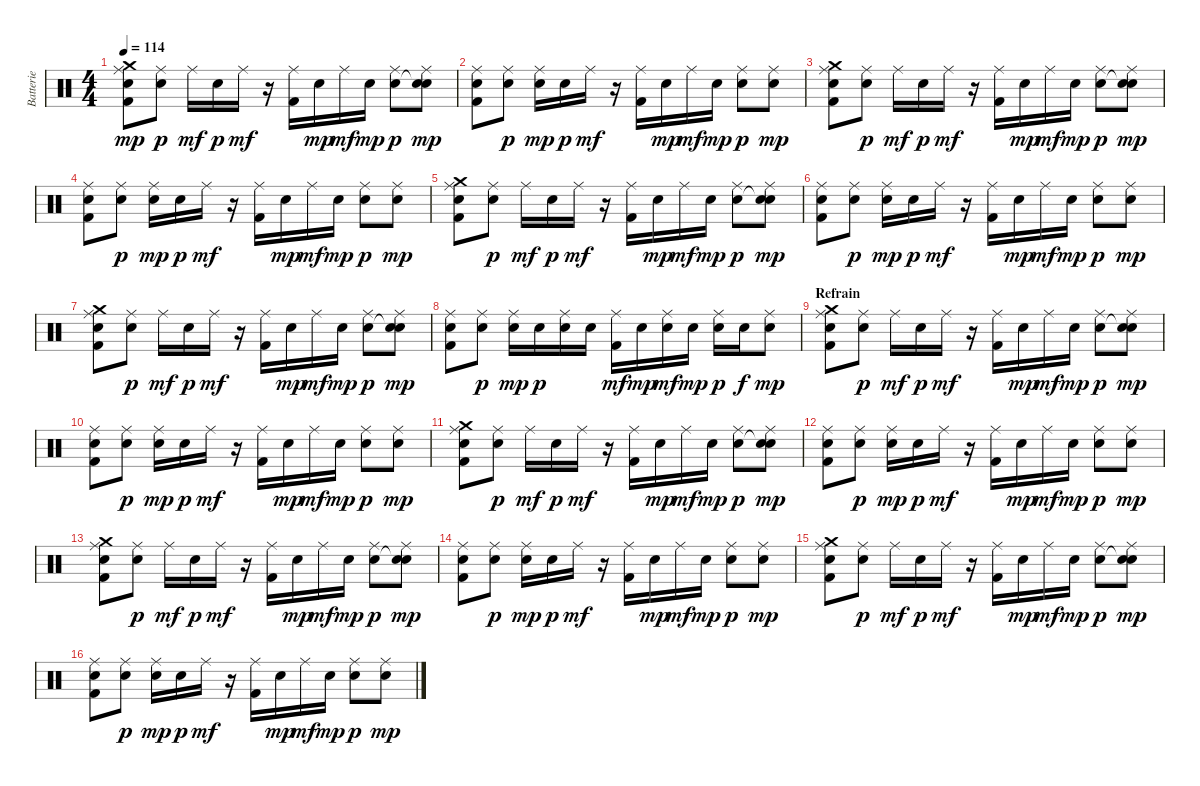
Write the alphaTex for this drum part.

\track ("Batterie" "Batterie") {instrument percussion}
\staff {score}
\articulation defaults
\ts (4 4)
\tempo 114
\clef neutral
\ks c
("Ride (middle)" "Crash medium (hit)" "Kick (hit) 2" "Snare (hit) 2").8{dy mp} ("Ride (middle)" "Snare (hit) 2").8{dy p} "Ride (middle)".16{dy mf} "Snare (hit) 2".16{dy p} "Ride (middle)".16{dy mf} r.16 ("Ride (middle)" "Kick (hit) 2").16 "Snare (hit) 2".16{dy mp} "Ride (middle)".16{dy mf} "Snare (hit) 2".16{dy mp} ("Ride (middle)" "Snare (hit) 2").8{dy p} ("Ride (middle)" "Snare (hit)"{t} "Snare (hit) 2").8{dy mp} |
("Ride (middle)" "Kick (hit) 2" "Snare (hit) 2").8 ("Ride (middle)" "Snare (hit) 2").8{dy p} ("Ride (middle)" "Snare (hit) 2").16{dy mp} "Snare (hit) 2".16{dy p} "Ride (middle)".16{dy mf} r.16 ("Ride (middle)" "Kick (hit) 2").16 "Snare (hit) 2".16{dy mp} "Ride (middle)".16{dy mf} "Snare (hit) 2".16{dy mp} ("Ride (middle)" "Snare (hit) 2").8{dy p} ("Ride (middle)" "Snare (hit) 2").8{dy mp} |
("Ride (middle)" "Crash medium (hit)" "Kick (hit) 2" "Snare (hit) 2").8 ("Ride (middle)" "Snare (hit) 2").8{dy p} "Ride (middle)".16{dy mf} "Snare (hit) 2".16{dy p} "Ride (middle)".16{dy mf} r.16 ("Ride (middle)" "Kick (hit) 2").16 "Snare (hit) 2".16{dy mp} "Ride (middle)".16{dy mf} "Snare (hit) 2".16{dy mp} ("Ride (middle)" "Snare (hit) 2").8{dy p} ("Ride (middle)" "Snare (hit)"{t} "Snare (hit) 2").8{dy mp} |
("Ride (middle)" "Kick (hit) 2" "Snare (hit) 2").8 ("Ride (middle)" "Snare (hit) 2").8{dy p} ("Ride (middle)" "Snare (hit) 2").16{dy mp} "Snare (hit) 2".16{dy p} "Ride (middle)".16{dy mf} r.16 ("Ride (middle)" "Kick (hit) 2").16 "Snare (hit) 2".16{dy mp} "Ride (middle)".16{dy mf} "Snare (hit) 2".16{dy mp} ("Ride (middle)" "Snare (hit) 2").8{dy p} ("Ride (middle)" "Snare (hit) 2").8{dy mp} |
("Ride (middle)" "Crash medium (hit)" "Kick (hit) 2" "Snare (hit) 2").8 ("Ride (middle)" "Snare (hit) 2").8{dy p} "Ride (middle)".16{dy mf} "Snare (hit) 2".16{dy p} "Ride (middle)".16{dy mf} r.16 ("Ride (middle)" "Kick (hit) 2").16 "Snare (hit) 2".16{dy mp} "Ride (middle)".16{dy mf} "Snare (hit) 2".16{dy mp} ("Ride (middle)" "Snare (hit) 2").8{dy p} ("Ride (middle)" "Snare (hit)"{t} "Snare (hit) 2").8{dy mp} |
("Ride (middle)" "Kick (hit) 2" "Snare (hit) 2").8 ("Ride (middle)" "Snare (hit) 2").8{dy p} ("Ride (middle)" "Snare (hit) 2").16{dy mp} "Snare (hit) 2".16{dy p} "Ride (middle)".16{dy mf} r.16 ("Ride (middle)" "Kick (hit) 2").16 "Snare (hit) 2".16{dy mp} "Ride (middle)".16{dy mf} "Snare (hit) 2".16{dy mp} ("Ride (middle)" "Snare (hit) 2").8{dy p} ("Ride (middle)" "Snare (hit) 2").8{dy mp} |
("Ride (middle)" "Crash medium (hit)" "Kick (hit) 2" "Snare (hit) 2").8 ("Ride (middle)" "Snare (hit) 2").8{dy p} "Ride (middle)".16{dy mf} "Snare (hit) 2".16{dy p} "Ride (middle)".16{dy mf} r.16 ("Ride (middle)" "Kick (hit) 2").16 "Snare (hit) 2".16{dy mp} "Ride (middle)".16{dy mf} "Snare (hit) 2".16{dy mp} ("Ride (middle)" "Snare (hit) 2").8{dy p} ("Ride (middle)" "Snare (hit)"{t} "Snare (hit) 2").8{dy mp} |
("Ride (middle)" "Kick (hit) 2" "Snare (hit) 2").8 ("Ride (middle)" "Snare (hit) 2").8{dy p} ("Ride (middle)" "Snare (hit) 2").16{dy mp} "Snare (hit) 2".16{dy p} ("Ride (middle)" "Snare (hit) 2").16 "Snare (hit) 2".16 ("Ride (middle)" "Kick (hit) 2").16{dy mf} "Snare (hit) 2".16{dy mp} ("Ride (middle)" "Snare (hit) 2").16{dy mf} "Snare (hit) 2".16{dy mp} ("Ride (middle)" "Snare (hit) 2").16{dy p} "Snare (hit) 2".16{dy f} ("Ride (middle)" "Snare (hit) 2").8{dy mp} |
\section ("" "Refrain")
("Ride (middle)" "Crash medium (hit)" "Kick (hit) 2" "Snare (hit) 2").8 ("Ride (middle)" "Snare (hit) 2").8{dy p} "Ride (middle)".16{dy mf} "Snare (hit) 2".16{dy p} "Ride (middle)".16{dy mf} r.16 ("Ride (middle)" "Kick (hit) 2").16 "Snare (hit) 2".16{dy mp} "Ride (middle)".16{dy mf} "Snare (hit) 2".16{dy mp} ("Ride (middle)" "Snare (hit) 2").8{dy p} ("Ride (middle)" "Snare (hit)"{t} "Snare (hit) 2").8{dy mp} |
("Ride (middle)" "Kick (hit) 2" "Snare (hit) 2").8 ("Ride (middle)" "Snare (hit) 2").8{dy p} ("Ride (middle)" "Snare (hit) 2").16{dy mp} "Snare (hit) 2".16{dy p} "Ride (middle)".16{dy mf} r.16 ("Ride (middle)" "Kick (hit) 2").16 "Snare (hit) 2".16{dy mp} "Ride (middle)".16{dy mf} "Snare (hit) 2".16{dy mp} ("Ride (middle)" "Snare (hit) 2").8{dy p} ("Ride (middle)" "Snare (hit) 2").8{dy mp} |
("Ride (middle)" "Crash medium (hit)" "Kick (hit) 2" "Snare (hit) 2").8 ("Ride (middle)" "Snare (hit) 2").8{dy p} "Ride (middle)".16{dy mf} "Snare (hit) 2".16{dy p} "Ride (middle)".16{dy mf} r.16 ("Ride (middle)" "Kick (hit) 2").16 "Snare (hit) 2".16{dy mp} "Ride (middle)".16{dy mf} "Snare (hit) 2".16{dy mp} ("Ride (middle)" "Snare (hit) 2").8{dy p} ("Ride (middle)" "Snare (hit)"{t} "Snare (hit) 2").8{dy mp} |
("Ride (middle)" "Kick (hit) 2" "Snare (hit) 2").8 ("Ride (middle)" "Snare (hit) 2").8{dy p} ("Ride (middle)" "Snare (hit) 2").16{dy mp} "Snare (hit) 2".16{dy p} "Ride (middle)".16{dy mf} r.16 ("Ride (middle)" "Kick (hit) 2").16 "Snare (hit) 2".16{dy mp} "Ride (middle)".16{dy mf} "Snare (hit) 2".16{dy mp} ("Ride (middle)" "Snare (hit) 2").8{dy p} ("Ride (middle)" "Snare (hit) 2").8{dy mp} |
("Ride (middle)" "Crash medium (hit)" "Kick (hit) 2" "Snare (hit) 2").8 ("Ride (middle)" "Snare (hit) 2").8{dy p} "Ride (middle)".16{dy mf} "Snare (hit) 2".16{dy p} "Ride (middle)".16{dy mf} r.16 ("Ride (middle)" "Kick (hit) 2").16 "Snare (hit) 2".16{dy mp} "Ride (middle)".16{dy mf} "Snare (hit) 2".16{dy mp} ("Ride (middle)" "Snare (hit) 2").8{dy p} ("Ride (middle)" "Snare (hit)"{t} "Snare (hit) 2").8{dy mp} |
("Ride (middle)" "Kick (hit) 2" "Snare (hit) 2").8 ("Ride (middle)" "Snare (hit) 2").8{dy p} ("Ride (middle)" "Snare (hit) 2").16{dy mp} "Snare (hit) 2".16{dy p} "Ride (middle)".16{dy mf} r.16 ("Ride (middle)" "Kick (hit) 2").16 "Snare (hit) 2".16{dy mp} "Ride (middle)".16{dy mf} "Snare (hit) 2".16{dy mp} ("Ride (middle)" "Snare (hit) 2").8{dy p} ("Ride (middle)" "Snare (hit) 2").8{dy mp} |
("Ride (middle)" "Crash medium (hit)" "Kick (hit) 2" "Snare (hit) 2").8 ("Ride (middle)" "Snare (hit) 2").8{dy p} "Ride (middle)".16{dy mf} "Snare (hit) 2".16{dy p} "Ride (middle)".16{dy mf} r.16 ("Ride (middle)" "Kick (hit) 2").16 "Snare (hit) 2".16{dy mp} "Ride (middle)".16{dy mf} "Snare (hit) 2".16{dy mp} ("Ride (middle)" "Snare (hit) 2").8{dy p} ("Ride (middle)" "Snare (hit)"{t} "Snare (hit) 2").8{dy mp} |
("Ride (middle)" "Kick (hit) 2" "Snare (hit) 2").8 ("Ride (middle)" "Snare (hit) 2").8{dy p} ("Ride (middle)" "Snare (hit) 2").16{dy mp} "Snare (hit) 2".16{dy p} "Ride (middle)".16{dy mf} r.16 ("Ride (middle)" "Kick (hit) 2").16 "Snare (hit) 2".16{dy mp} "Ride (middle)".16{dy mf} "Snare (hit) 2".16{dy mp} ("Ride (middle)" "Snare (hit) 2").8{dy p} ("Ride (middle)" "Snare (hit) 2").8{dy mp}
